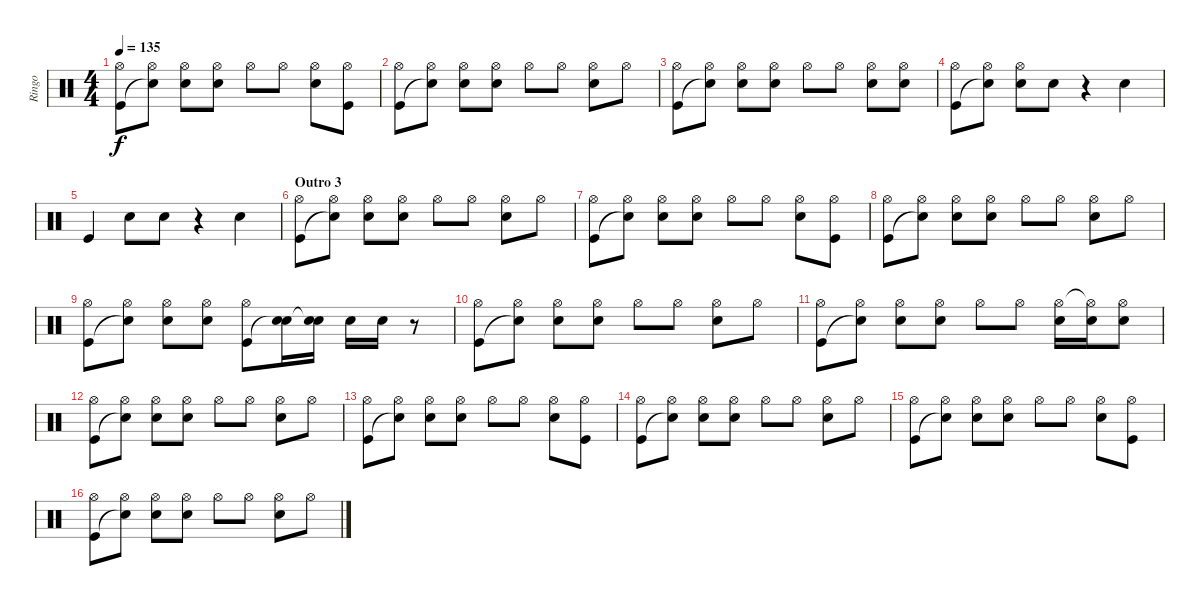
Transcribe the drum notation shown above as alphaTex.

\track ("Ringo" "Ringo") {instrument percussion}
\staff {score}
\articulation defaults
\ts (4 4)
\tempo 135
\clef neutral
\ks c
("Hi-Hat (open)" "Kick (hit)").8{dy f} ("Hi-Hat (open)" "Snare (hit)"{t}).8 ("Hi-Hat (open)" "Snare (hit) 2").8 ("Hi-Hat (open)" "Snare (hit) 2").8 "Hi-Hat (open)".8 "Hi-Hat (open)".8 ("Hi-Hat (open)" "Snare (hit) 2").8 ("Hi-Hat (open)" "Kick (hit)").8 |
("Hi-Hat (open)" "Kick (hit)").8 ("Hi-Hat (open)" "Snare (hit)"{t}).8 ("Hi-Hat (open)" "Snare (hit) 2").8 ("Hi-Hat (open)" "Snare (hit) 2").8 "Hi-Hat (open)".8 "Hi-Hat (open)".8 ("Hi-Hat (open)" "Snare (hit) 2").8 "Hi-Hat (open)".8 |
("Hi-Hat (open)" "Kick (hit)").8 ("Hi-Hat (open)" "Snare (hit)"{t}).8 ("Hi-Hat (open)" "Snare (hit) 2").8 ("Hi-Hat (open)" "Snare (hit) 2").8 "Hi-Hat (open)".8 "Hi-Hat (open)".8 ("Hi-Hat (open)" "Snare (hit) 2").8 ("Hi-Hat (open)" "Snare (hit) 2").8 |
("Hi-Hat (open)" "Kick (hit)").8 ("Hi-Hat (open)" "Snare (hit)"{t}).8 ("Hi-Hat (open)" "Snare (hit) 2").8 "Snare (hit) 2".8 r.4 "Snare (hit) 2".4 |
"Kick (hit)".4 "Snare (hit) 2".8 "Snare (hit) 2".8 r.4 "Snare (hit) 2".4 |
\section ("" "Outro 3")
("Hi-Hat (open)" "Kick (hit)").8 ("Hi-Hat (open)" "Snare (hit)"{t}).8 ("Hi-Hat (open)" "Snare (hit) 2").8 ("Hi-Hat (open)" "Snare (hit) 2").8 "Hi-Hat (open)".8 "Hi-Hat (open)".8 ("Hi-Hat (open)" "Snare (hit) 2").8 "Hi-Hat (open)".8 |
("Hi-Hat (open)" "Kick (hit)").8 ("Hi-Hat (open)" "Snare (hit)"{t}).8 ("Hi-Hat (open)" "Snare (hit) 2").8 ("Hi-Hat (open)" "Snare (hit) 2").8 "Hi-Hat (open)".8 "Hi-Hat (open)".8 ("Hi-Hat (open)" "Snare (hit) 2").8 ("Hi-Hat (open)" "Kick (hit)").8 |
("Hi-Hat (open)" "Kick (hit)").8 ("Hi-Hat (open)" "Snare (hit)"{t}).8 ("Hi-Hat (open)" "Snare (hit) 2").8 ("Hi-Hat (open)" "Snare (hit) 2").8 "Hi-Hat (open)".8 "Hi-Hat (open)".8 ("Hi-Hat (open)" "Snare (hit) 2").8 "Hi-Hat (open)".8 |
("Hi-Hat (open)" "Kick (hit)").8 ("Hi-Hat (open)" "Snare (hit)"{t}).8 ("Hi-Hat (open)" "Snare (hit) 2").8 ("Hi-Hat (open)" "Snare (hit) 2").8 ("Hi-Hat (open)" "Kick (hit)").8 ("Snare (hit) 2" "Snare (hit)"{t}).16 ("Snare (hit) 2" "Snare (hit)"{t}).16 "Snare (hit) 2".16 "Snare (hit) 2".16 r.8 |
("Hi-Hat (open)" "Kick (hit)").8 ("Hi-Hat (open)" "Snare (hit)"{t}).8 ("Hi-Hat (open)" "Snare (hit) 2").8 ("Hi-Hat (open)" "Snare (hit) 2").8 "Hi-Hat (open)".8 "Hi-Hat (open)".8 ("Hi-Hat (open)" "Snare (hit) 2").8 "Hi-Hat (open)".8 |
("Hi-Hat (open)" "Kick (hit)").8 ("Hi-Hat (open)" "Snare (hit)"{t}).8 ("Hi-Hat (open)" "Snare (hit) 2").8 ("Hi-Hat (open)" "Snare (hit) 2").8 "Hi-Hat (open)".8 "Hi-Hat (open)".8 ("Hi-Hat (open)" "Snare (hit) 2").16 ("Hi-Hat (open)"{t} "Snare (hit) 2").16 ("Hi-Hat (open)" "Snare (hit) 2").8 |
("Hi-Hat (open)" "Kick (hit)").8 ("Hi-Hat (open)" "Snare (hit)"{t}).8 ("Hi-Hat (open)" "Snare (hit) 2").8 ("Hi-Hat (open)" "Snare (hit) 2").8 "Hi-Hat (open)".8 "Hi-Hat (open)".8 ("Hi-Hat (open)" "Snare (hit) 2").8 "Hi-Hat (open)".8 |
("Hi-Hat (open)" "Kick (hit)").8 ("Hi-Hat (open)" "Snare (hit)"{t}).8 ("Hi-Hat (open)" "Snare (hit) 2").8 ("Hi-Hat (open)" "Snare (hit) 2").8 "Hi-Hat (open)".8 "Hi-Hat (open)".8 ("Hi-Hat (open)" "Snare (hit) 2").8 ("Hi-Hat (open)" "Kick (hit)").8 |
("Hi-Hat (open)" "Kick (hit)").8{volume 10} ("Hi-Hat (open)" "Snare (hit)"{t}).8 ("Hi-Hat (open)" "Snare (hit) 2").8 ("Hi-Hat (open)" "Snare (hit) 2").8 "Hi-Hat (open)".8 "Hi-Hat (open)".8 ("Hi-Hat (open)" "Snare (hit) 2").8 "Hi-Hat (open)".8 |
("Hi-Hat (open)" "Kick (hit)").8 ("Hi-Hat (open)" "Snare (hit)"{t}).8 ("Hi-Hat (open)" "Snare (hit) 2").8 ("Hi-Hat (open)" "Snare (hit) 2").8 "Hi-Hat (open)".8 "Hi-Hat (open)".8 ("Hi-Hat (open)" "Snare (hit) 2").8 ("Hi-Hat (open)" "Kick (hit)").8 |
("Hi-Hat (open)" "Kick (hit)").8{volume 8} ("Hi-Hat (open)" "Snare (hit)"{t}).8 ("Hi-Hat (open)" "Snare (hit) 2").8 ("Hi-Hat (open)" "Snare (hit) 2").8 "Hi-Hat (open)".8 "Hi-Hat (open)".8 ("Hi-Hat (open)" "Snare (hit) 2").8 "Hi-Hat (open)".8
